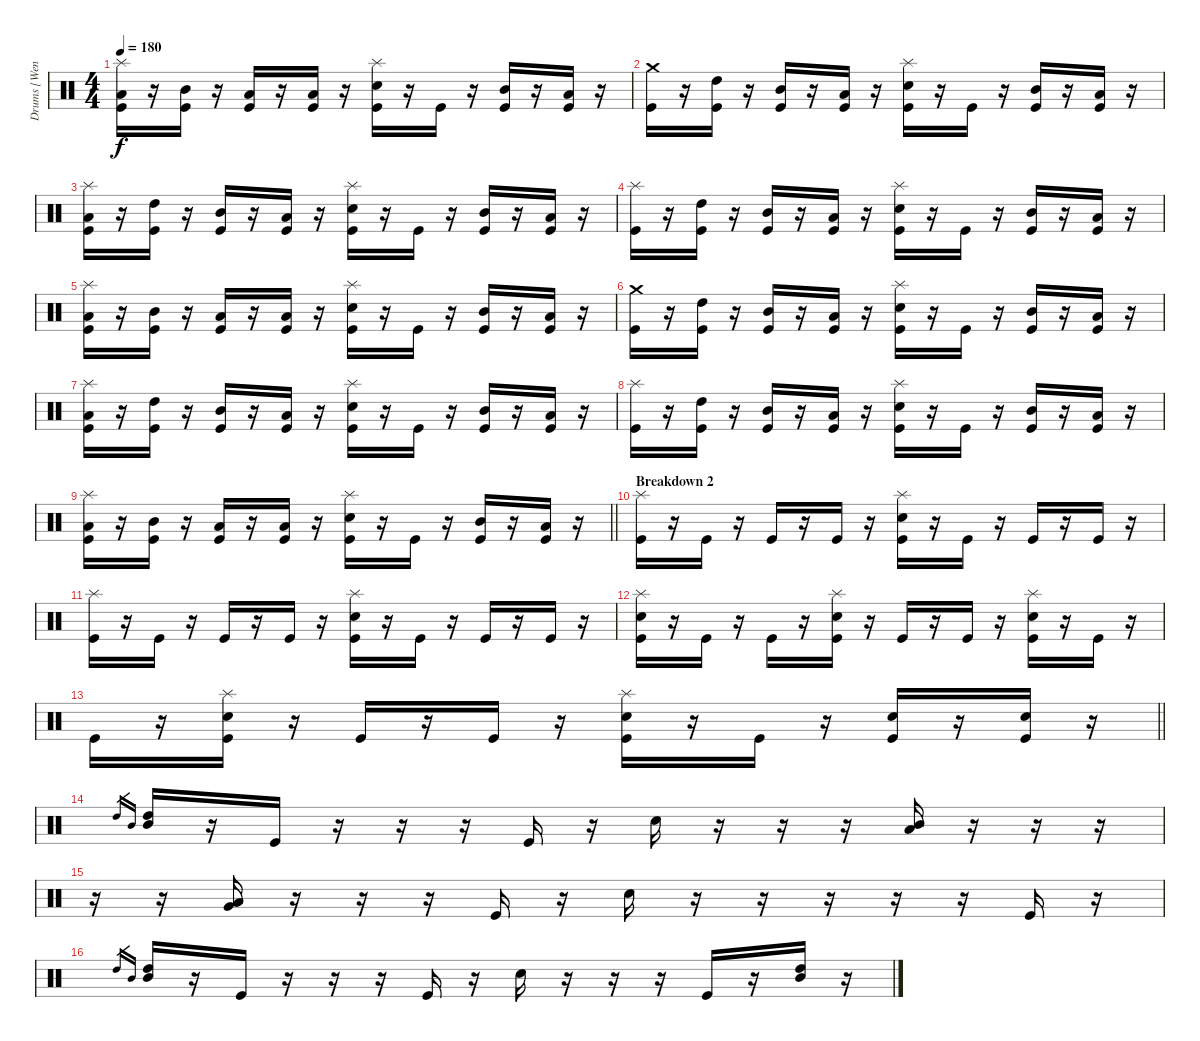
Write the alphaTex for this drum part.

\track ("Drums [Wengren]" "Drums [Wen") {instrument percussion}
\staff {score}
\articulation defaults
\ts (4 4)
\tempo 180
\clef neutral
\ks c
("Splash (hit)" "Low Floor Tom (hit)" "Kick (hit)").16{dy f} r.16 ("Mid Tom (hit)" "Kick (hit)").16 r.16 ("Low Tom (hit)" "Kick (hit)").16 r.16 ("Low Floor Tom (hit)" "Kick (hit)").16 r.16 ("Splash (hit)" "Electric Snare (hit)" "Kick (hit)").16 r.16 "Kick (hit)".16 r.16 ("Mid Tom (hit)" "Kick (hit)").16 r.16 ("Low Floor Tom (hit)" "Kick (hit)").16 r.16 |
("Crash medium (hit)" "Kick (hit)").16 r.16 ("High Tom (hit)" "Kick (hit)").16 r.16 ("Mid Tom (hit)" "Kick (hit)").16 r.16 ("Low Tom (hit)" "Kick (hit)").16 r.16 ("Splash (hit)" "Electric Snare (hit)" "Kick (hit)").16 r.16 "Kick (hit)".16 r.16 ("Mid Tom (hit)" "Kick (hit)").16 r.16 ("Low Tom (hit)" "Kick (hit)").16 r.16 |
("Splash (hit)" "Low Floor Tom (hit)" "Kick (hit)").16 r.16 ("High Tom (hit)" "Kick (hit)").16 r.16 ("Mid Tom (hit)" "Kick (hit)").16 r.16 ("Low Tom (hit)" "Kick (hit)").16 r.16 ("Splash (hit)" "Electric Snare (hit)" "Kick (hit)").16 r.16 "Kick (hit)".16 r.16 ("Mid Tom (hit)" "Kick (hit)").16 r.16 ("Low Tom (hit)" "Kick (hit)").16 r.16 |
("Splash (hit)" "Kick (hit)").16 r.16 ("High Tom (hit)" "Kick (hit)").16 r.16 ("Mid Tom (hit)" "Kick (hit)").16 r.16 ("Low Tom (hit)" "Kick (hit)").16 r.16 ("Splash (hit)" "Electric Snare (hit)" "Kick (hit)").16 r.16 "Kick (hit)".16 r.16 ("Mid Tom (hit)" "Kick (hit)").16 r.16 ("Low Tom (hit)" "Kick (hit)").16 r.16 |
("Splash (hit)" "Low Floor Tom (hit)" "Kick (hit)").16 r.16 ("Mid Tom (hit)" "Kick (hit)").16 r.16 ("Low Tom (hit)" "Kick (hit)").16 r.16 ("Low Floor Tom (hit)" "Kick (hit)").16 r.16 ("Splash (hit)" "Electric Snare (hit)" "Kick (hit)").16 r.16 "Kick (hit)".16 r.16 ("Mid Tom (hit)" "Kick (hit)").16 r.16 ("Low Floor Tom (hit)" "Kick (hit)").16 r.16 |
("Crash medium (hit)" "Kick (hit)").16 r.16 ("High Tom (hit)" "Kick (hit)").16 r.16 ("Mid Tom (hit)" "Kick (hit)").16 r.16 ("Low Tom (hit)" "Kick (hit)").16 r.16 ("Splash (hit)" "Electric Snare (hit)" "Kick (hit)").16 r.16 "Kick (hit)".16 r.16 ("Mid Tom (hit)" "Kick (hit)").16 r.16 ("Low Tom (hit)" "Kick (hit)").16 r.16 |
("Splash (hit)" "Low Floor Tom (hit)" "Kick (hit)").16 r.16 ("High Tom (hit)" "Kick (hit)").16 r.16 ("Mid Tom (hit)" "Kick (hit)").16 r.16 ("Low Tom (hit)" "Kick (hit)").16 r.16 ("Splash (hit)" "Electric Snare (hit)" "Kick (hit)").16 r.16 "Kick (hit)".16 r.16 ("Mid Tom (hit)" "Kick (hit)").16 r.16 ("Low Tom (hit)" "Kick (hit)").16 r.16 |
("Splash (hit)" "Kick (hit)").16 r.16 ("High Tom (hit)" "Kick (hit)").16 r.16 ("Mid Tom (hit)" "Kick (hit)").16 r.16 ("Low Tom (hit)" "Kick (hit)").16 r.16 ("Splash (hit)" "Electric Snare (hit)" "Kick (hit)").16 r.16 "Kick (hit)".16 r.16 ("Mid Tom (hit)" "Kick (hit)").16 r.16 ("Low Tom (hit)" "Kick (hit)").16 r.16 |
\barLineRight lightlight
("Splash (hit)" "Low Floor Tom (hit)" "Kick (hit)").16 r.16 ("Mid Tom (hit)" "Kick (hit)").16 r.16 ("Low Tom (hit)" "Kick (hit)").16 r.16 ("Low Floor Tom (hit)" "Kick (hit)").16 r.16 ("Splash (hit)" "Electric Snare (hit)" "Kick (hit)").16 r.16 "Kick (hit)".16 r.16 ("Mid Tom (hit)" "Kick (hit)").16 r.16 ("Low Floor Tom (hit)" "Kick (hit)").16 r.16 |
\section ("" "Breakdown 2")
("Splash (hit)" "Kick (hit)").16 r.16 "Kick (hit)".16 r.16 "Kick (hit)".16 r.16 "Kick (hit)".16 r.16 ("Splash (hit)" "Electric Snare (hit)" "Kick (hit)").16 r.16 "Kick (hit)".16 r.16 "Kick (hit)".16 r.16 "Kick (hit)".16 r.16 |
("Splash (hit)" "Kick (hit)").16 r.16 "Kick (hit)".16 r.16 "Kick (hit)".16 r.16 "Kick (hit)".16 r.16 ("Splash (hit)" "Electric Snare (hit)" "Kick (hit)").16 r.16 "Kick (hit)".16 r.16 "Kick (hit)".16 r.16 "Kick (hit)".16 r.16 |
("Splash (hit)" "Electric Snare (hit)" "Kick (hit)").16 r.16 "Kick (hit)".16 r.16 "Kick (hit)".16 r.16 ("Splash (hit)" "Electric Snare (hit)" "Kick (hit)").16 r.16 "Kick (hit)".16 r.16 "Kick (hit)".16 r.16 ("Splash (hit)" "Electric Snare (hit)" "Kick (hit)").16 r.16 "Kick (hit)".16 r.16 |
\barLineRight lightlight "Kick (hit)".16
r.16 ("Splash (hit)" "Electric Snare (hit)" "Kick (hit)").16 r.16 "Kick (hit)".16 r.16 "Kick (hit)".16 r.16 ("Splash (hit)" "Electric Snare (hit)" "Kick (hit)").16 r.16 "Kick (hit)".16 r.16 ("Electric Snare (hit)" "Kick (hit)").16 r.16 ("Electric Snare (hit)" "Kick (hit)").16 r.16 |
"High Tom (hit)".16{gr} "Mid Tom (hit)".16{gr} ("High Tom (hit)" "Mid Tom (hit)").16 r.16 "Kick (hit)".16 r.16 r.16 r.16 "Kick (hit)".16 r.16 "Electric Snare (hit)".16 r.16 r.16 r.16 ("Mid Tom (hit)" "Low Tom (hit)").16 r.16 r.16 r.16 |
r.16 r.16 ("Very Low Tom (hit)" "Low Floor Tom (hit)").16 r.16 r.16 r.16 "Kick (hit)".16 r.16 "Electric Snare (hit)".16 r.16 r.16 r.16 r.16 r.16 "Kick (hit)".16 r.16 |
"High Tom (hit)".16{gr} "Mid Tom (hit)".16{gr} ("High Tom (hit)" "Mid Tom (hit)").16 r.16 "Kick (hit)".16 r.16 r.16 r.16 "Kick (hit)".16 r.16 "Electric Snare (hit)".16 r.16 r.16 r.16 "Kick (hit)".16 r.16 ("High Tom (hit)" "Mid Tom (hit)").16 r.16
